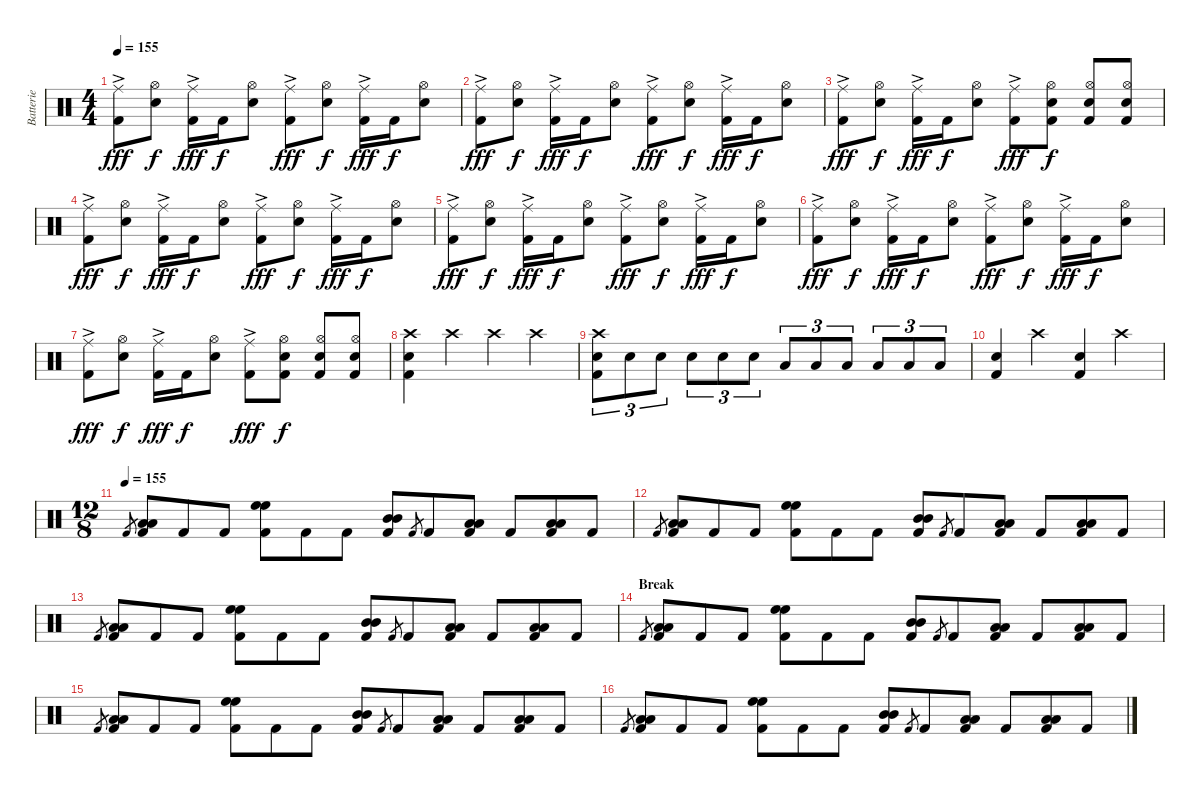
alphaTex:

\track ("Batterie" "Batterie") {instrument percussion}
\staff {score}
\articulation defaults
\ts (4 4)
\tempo 155
\clef neutral
\ks c
("Ride (middle)"{ac} "Kick (hit) 2").8{dy fff} ("Hi-Hat (open)" "Snare (hit) 2").8{dy f} ("Ride (middle)"{ac} "Kick (hit) 2").16{dy fff} "Kick (hit) 2".16{dy f} ("Hi-Hat (open)" "Snare (hit) 2").8 ("Ride (middle)"{ac} "Kick (hit) 2").8{dy fff} ("Hi-Hat (open)" "Snare (hit) 2").8{dy f} ("Ride (middle)"{ac} "Kick (hit) 2").16{dy fff} "Kick (hit) 2".16{dy f} ("Hi-Hat (open)" "Snare (hit) 2").8 |
("Ride (middle)"{ac} "Kick (hit) 2").8{dy fff} ("Hi-Hat (open)" "Snare (hit) 2").8{dy f} ("Ride (middle)"{ac} "Kick (hit) 2").16{dy fff} "Kick (hit) 2".16{dy f} ("Hi-Hat (open)" "Snare (hit) 2").8 ("Ride (middle)"{ac} "Kick (hit) 2").8{dy fff} ("Hi-Hat (open)" "Snare (hit) 2").8{dy f} ("Ride (middle)"{ac} "Kick (hit) 2").16{dy fff} "Kick (hit) 2".16{dy f} ("Hi-Hat (open)" "Snare (hit) 2").8 |
("Ride (middle)"{ac} "Kick (hit) 2").8{dy fff} ("Hi-Hat (open)" "Snare (hit) 2").8{dy f} ("Ride (middle)"{ac} "Kick (hit) 2").16{dy fff} "Kick (hit) 2".16{dy f} ("Hi-Hat (open)" "Snare (hit) 2").8 ("Ride (middle)"{ac} "Kick (hit) 2").8{dy fff} ("Hi-Hat (open)" "Snare (hit) 2" "Kick (hit) 2").8{dy f} ("Hi-Hat (open)" "Snare (hit) 2" "Kick (hit) 2").8 ("Hi-Hat (open)" "Snare (hit) 2" "Kick (hit) 2").8 |
("Ride (middle)"{ac} "Kick (hit) 2").8{dy fff} ("Hi-Hat (open)" "Snare (hit) 2").8{dy f} ("Ride (middle)"{ac} "Kick (hit) 2").16{dy fff} "Kick (hit) 2".16{dy f} ("Hi-Hat (open)" "Snare (hit) 2").8 ("Ride (middle)"{ac} "Kick (hit) 2").8{dy fff} ("Hi-Hat (open)" "Snare (hit) 2").8{dy f} ("Ride (middle)"{ac} "Kick (hit) 2").16{dy fff} "Kick (hit) 2".16{dy f} ("Hi-Hat (open)" "Snare (hit) 2").8 |
("Ride (middle)"{ac} "Kick (hit) 2").8{dy fff} ("Hi-Hat (open)" "Snare (hit) 2").8{dy f} ("Ride (middle)"{ac} "Kick (hit) 2").16{dy fff} "Kick (hit) 2".16{dy f} ("Hi-Hat (open)" "Snare (hit) 2").8 ("Ride (middle)"{ac} "Kick (hit) 2").8{dy fff} ("Hi-Hat (open)" "Snare (hit) 2").8{dy f} ("Ride (middle)"{ac} "Kick (hit) 2").16{dy fff} "Kick (hit) 2".16{dy f} ("Hi-Hat (open)" "Snare (hit) 2").8 |
("Ride (middle)"{ac} "Kick (hit) 2").8{dy fff} ("Hi-Hat (open)" "Snare (hit) 2").8{dy f} ("Ride (middle)"{ac} "Kick (hit) 2").16{dy fff} "Kick (hit) 2".16{dy f} ("Hi-Hat (open)" "Snare (hit) 2").8 ("Ride (middle)"{ac} "Kick (hit) 2").8{dy fff} ("Hi-Hat (open)" "Snare (hit) 2").8{dy f} ("Ride (middle)"{ac} "Kick (hit) 2").16{dy fff} "Kick (hit) 2".16{dy f} ("Hi-Hat (open)" "Snare (hit) 2").8 |
("Ride (middle)"{ac} "Kick (hit) 2").8{dy fff} ("Hi-Hat (open)" "Snare (hit) 2").8{dy f} ("Ride (middle)"{ac} "Kick (hit) 2").16{dy fff} "Kick (hit) 2".16{dy f} ("Hi-Hat (open)" "Snare (hit) 2").8 ("Ride (middle)"{ac} "Kick (hit) 2").8{dy fff} ("Hi-Hat (open)" "Snare (hit) 2" "Kick (hit) 2").8{dy f} ("Hi-Hat (open)" "Snare (hit) 2" "Kick (hit) 2").8 ("Hi-Hat (open)" "Snare (hit) 2" "Kick (hit) 2").8 |
("Crash high (hit)" "Snare (hit) 2" "Kick (hit) 2").4 "Crash high (hit)".4 "Crash high (hit)".4 "Crash high (hit)".4 |
("Crash high (hit)" "Snare (hit) 2" "Kick (hit) 2").8{tu (3 2)} "Snare (hit) 2".8{tu (3 2)} "Snare (hit) 2".8{tu (3 2)} "Snare (hit) 2".8{tu (3 2)} "Snare (hit) 2".8{tu (3 2)} "Snare (hit) 2".8{tu (3 2)} "Low Tom (hit)".8{tu (3 2)} "Low Tom (hit)".8{tu (3 2)} "Low Tom (hit)".8{tu (3 2)} "Low Floor Tom (hit)".8{tu (3 2)} "Low Floor Tom (hit)".8{tu (3 2)} "Low Floor Tom (hit)".8{tu (3 2)} |
("Snare (hit) 2" "Kick (hit) 2").4 "Crash high (hit)".4 ("Snare (hit) 2" "Kick (hit) 2").4 "Crash high (hit)".4 |
\ts (12 8)
\tempo (155)
"Kick (hit) 2".8{gr} ("Low Tom (hit)" "Low Tom (hit)" "Kick (hit) 2").8 "Kick (hit) 2".8 "Kick (hit) 2".8 ("High Floor Tom (hit)" "High Floor Tom (hit)" "Kick (hit) 2").8 "Kick (hit) 2".8 "Kick (hit) 2".8 ("Mid Tom (hit)" "Mid Tom (hit)" "Kick (hit) 2").8 "Kick (hit) 2".8{gr} "Kick (hit) 2".8 ("Low Floor Tom (hit)" "Low Floor Tom (hit)" "Kick (hit) 2").8 "Kick (hit) 2".8 ("Low Floor Tom (hit)" "Low Floor Tom (hit)" "Kick (hit) 2").8 "Kick (hit) 2".8 |
"Kick (hit) 2".8{gr} ("Low Tom (hit)" "Low Tom (hit)" "Kick (hit) 2").8 "Kick (hit) 2".8 "Kick (hit) 2".8 ("High Floor Tom (hit)" "High Floor Tom (hit)" "Kick (hit) 2").8 "Kick (hit) 2".8 "Kick (hit) 2".8 ("Mid Tom (hit)" "Mid Tom (hit)" "Kick (hit) 2").8 "Kick (hit) 2".8{gr} "Kick (hit) 2".8 ("Low Floor Tom (hit)" "Low Floor Tom (hit)" "Kick (hit) 2").8 "Kick (hit) 2".8 ("Low Floor Tom (hit)" "Low Floor Tom (hit)" "Kick (hit) 2").8 "Kick (hit) 2".8 |
"Kick (hit) 2".8{gr} ("Low Tom (hit)" "Low Tom (hit)" "Kick (hit) 2").8 "Kick (hit) 2".8 "Kick (hit) 2".8 ("High Floor Tom (hit)" "High Floor Tom (hit)" "Kick (hit) 2").8 "Kick (hit) 2".8 "Kick (hit) 2".8 ("Mid Tom (hit)" "Mid Tom (hit)" "Kick (hit) 2").8 "Kick (hit) 2".8{gr} "Kick (hit) 2".8 ("Low Floor Tom (hit)" "Low Floor Tom (hit)" "Kick (hit) 2").8 "Kick (hit) 2".8 ("Low Floor Tom (hit)" "Low Floor Tom (hit)" "Kick (hit) 2").8 "Kick (hit) 2".8 |
\section ("" "Break")
"Kick (hit) 2".8{gr} ("Low Tom (hit)" "Low Tom (hit)" "Kick (hit) 2").8 "Kick (hit) 2".8 "Kick (hit) 2".8 ("High Floor Tom (hit)" "High Floor Tom (hit)" "Kick (hit) 2").8 "Kick (hit) 2".8 "Kick (hit) 2".8 ("Mid Tom (hit)" "Mid Tom (hit)" "Kick (hit) 2").8 "Kick (hit) 2".8{gr} "Kick (hit) 2".8 ("Low Floor Tom (hit)" "Low Floor Tom (hit)" "Kick (hit) 2").8 "Kick (hit) 2".8 ("Low Floor Tom (hit)" "Low Floor Tom (hit)" "Kick (hit) 2").8 "Kick (hit) 2".8 |
"Kick (hit) 2".8{gr} ("Low Tom (hit)" "Low Tom (hit)" "Kick (hit) 2").8 "Kick (hit) 2".8 "Kick (hit) 2".8 ("High Floor Tom (hit)" "High Floor Tom (hit)" "Kick (hit) 2").8 "Kick (hit) 2".8 "Kick (hit) 2".8 ("Mid Tom (hit)" "Mid Tom (hit)" "Kick (hit) 2").8 "Kick (hit) 2".8{gr} "Kick (hit) 2".8 ("Low Floor Tom (hit)" "Low Floor Tom (hit)" "Kick (hit) 2").8 "Kick (hit) 2".8 ("Low Floor Tom (hit)" "Low Floor Tom (hit)" "Kick (hit) 2").8 "Kick (hit) 2".8 |
"Kick (hit) 2".8{gr} ("Low Tom (hit)" "Low Tom (hit)" "Kick (hit) 2").8 "Kick (hit) 2".8 "Kick (hit) 2".8 ("High Floor Tom (hit)" "High Floor Tom (hit)" "Kick (hit) 2").8 "Kick (hit) 2".8 "Kick (hit) 2".8 ("Mid Tom (hit)" "Mid Tom (hit)" "Kick (hit) 2").8 "Kick (hit) 2".8{gr} "Kick (hit) 2".8 ("Low Floor Tom (hit)" "Low Floor Tom (hit)" "Kick (hit) 2").8 "Kick (hit) 2".8 ("Low Floor Tom (hit)" "Low Floor Tom (hit)" "Kick (hit) 2").8 "Kick (hit) 2".8
